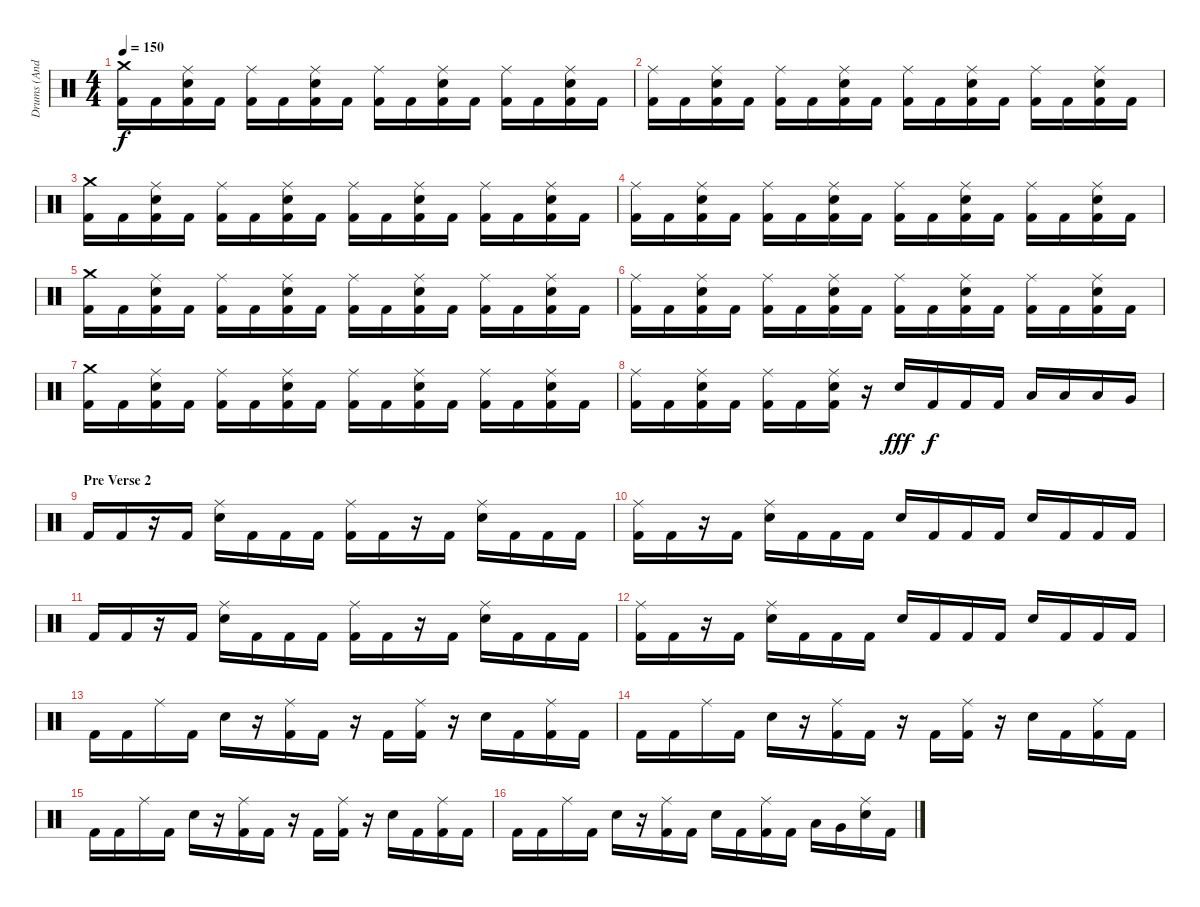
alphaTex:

\track ("Drums (Andy C)" "Drums (And") {instrument percussion}
\staff {score}
\articulation defaults
\ts (4 4)
\tempo 150
\clef neutral
\ks c
("Crash medium (hit)" "Kick (hit) 2").16{dy f} "Kick (hit) 2".16 ("Ride (middle)" "Kick (hit) 2" "Electric Snare (hit)").16 "Kick (hit) 2".16 ("Ride (middle)" "Kick (hit) 2").16 "Kick (hit) 2".16 ("Ride (middle)" "Kick (hit) 2" "Electric Snare (hit)").16 "Kick (hit) 2".16 ("Ride (middle)" "Kick (hit) 2").16 "Kick (hit) 2".16 ("Ride (middle)" "Kick (hit) 2" "Electric Snare (hit)").16 "Kick (hit) 2".16 ("Ride (middle)" "Kick (hit) 2").16 "Kick (hit) 2".16 ("Ride (middle)" "Kick (hit) 2" "Electric Snare (hit)").16 "Kick (hit) 2".16 |
("Ride (middle)" "Kick (hit) 2").16 "Kick (hit) 2".16 ("Ride (middle)" "Kick (hit) 2" "Electric Snare (hit)").16 "Kick (hit) 2".16 ("Ride (middle)" "Kick (hit) 2").16 "Kick (hit) 2".16 ("Ride (middle)" "Kick (hit) 2" "Electric Snare (hit)").16 "Kick (hit) 2".16 ("Ride (middle)" "Kick (hit) 2").16 "Kick (hit) 2".16 ("Ride (middle)" "Kick (hit) 2" "Electric Snare (hit)").16 "Kick (hit) 2".16 ("Ride (middle)" "Kick (hit) 2").16 "Kick (hit) 2".16 ("Ride (middle)" "Kick (hit) 2" "Electric Snare (hit)").16 "Kick (hit) 2".16 |
("Crash medium (hit)" "Kick (hit) 2").16 "Kick (hit) 2".16 ("Ride (middle)" "Kick (hit) 2" "Electric Snare (hit)").16 "Kick (hit) 2".16 ("Ride (middle)" "Kick (hit) 2").16 "Kick (hit) 2".16 ("Ride (middle)" "Kick (hit) 2" "Electric Snare (hit)").16 "Kick (hit) 2".16 ("Ride (middle)" "Kick (hit) 2").16 "Kick (hit) 2".16 ("Ride (middle)" "Kick (hit) 2" "Electric Snare (hit)").16 "Kick (hit) 2".16 ("Ride (middle)" "Kick (hit) 2").16 "Kick (hit) 2".16 ("Ride (middle)" "Kick (hit) 2" "Electric Snare (hit)").16 "Kick (hit) 2".16 |
("Ride (middle)" "Kick (hit) 2").16 "Kick (hit) 2".16 ("Ride (middle)" "Kick (hit) 2" "Electric Snare (hit)").16 "Kick (hit) 2".16 ("Ride (middle)" "Kick (hit) 2").16 "Kick (hit) 2".16 ("Ride (middle)" "Kick (hit) 2" "Electric Snare (hit)").16 "Kick (hit) 2".16 ("Ride (middle)" "Kick (hit) 2").16 "Kick (hit) 2".16 ("Ride (middle)" "Kick (hit) 2" "Electric Snare (hit)").16 "Kick (hit) 2".16 ("Ride (middle)" "Kick (hit) 2").16 "Kick (hit) 2".16 ("Ride (middle)" "Kick (hit) 2" "Electric Snare (hit)").16 "Kick (hit) 2".16 |
("Crash medium (hit)" "Kick (hit) 2").16 "Kick (hit) 2".16 ("Ride (middle)" "Kick (hit) 2" "Electric Snare (hit)").16 "Kick (hit) 2".16 ("Ride (middle)" "Kick (hit) 2").16 "Kick (hit) 2".16 ("Ride (middle)" "Kick (hit) 2" "Electric Snare (hit)").16 "Kick (hit) 2".16 ("Ride (middle)" "Kick (hit) 2").16 "Kick (hit) 2".16 ("Ride (middle)" "Kick (hit) 2" "Electric Snare (hit)").16 "Kick (hit) 2".16 ("Ride (middle)" "Kick (hit) 2").16 "Kick (hit) 2".16 ("Ride (middle)" "Kick (hit) 2" "Electric Snare (hit)").16 "Kick (hit) 2".16 |
("Ride (middle)" "Kick (hit) 2").16 "Kick (hit) 2".16 ("Ride (middle)" "Kick (hit) 2" "Electric Snare (hit)").16 "Kick (hit) 2".16 ("Ride (middle)" "Kick (hit) 2").16 "Kick (hit) 2".16 ("Ride (middle)" "Kick (hit) 2" "Electric Snare (hit)").16 "Kick (hit) 2".16 ("Ride (middle)" "Kick (hit) 2").16 "Kick (hit) 2".16 ("Ride (middle)" "Kick (hit) 2" "Electric Snare (hit)").16 "Kick (hit) 2".16 ("Ride (middle)" "Kick (hit) 2").16 "Kick (hit) 2".16 ("Ride (middle)" "Kick (hit) 2" "Electric Snare (hit)").16 "Kick (hit) 2".16 |
("Crash medium (hit)" "Kick (hit) 2").16 "Kick (hit) 2".16 ("Ride (middle)" "Kick (hit) 2" "Electric Snare (hit)").16 "Kick (hit) 2".16 ("Ride (middle)" "Kick (hit) 2").16 "Kick (hit) 2".16 ("Ride (middle)" "Kick (hit) 2" "Electric Snare (hit)").16 "Kick (hit) 2".16 ("Ride (middle)" "Kick (hit) 2").16 "Kick (hit) 2".16 ("Ride (middle)" "Kick (hit) 2" "Electric Snare (hit)").16 "Kick (hit) 2".16 ("Ride (middle)" "Kick (hit) 2").16 "Kick (hit) 2".16 ("Ride (middle)" "Kick (hit) 2" "Electric Snare (hit)").16 "Kick (hit) 2".16 |
("Ride (middle)" "Kick (hit) 2").16 "Kick (hit) 2".16 ("Ride (middle)" "Kick (hit) 2" "Electric Snare (hit)").16 "Kick (hit) 2".16 ("Ride (middle)" "Kick (hit) 2").16 "Kick (hit) 2".16 ("Ride (middle)" "Kick (hit) 2" "Electric Snare (hit)").16 r.16 "Electric Snare (hit)".16{dy fff} "Kick (hit) 2".16{dy f} "Kick (hit) 2".16 "Kick (hit) 2".16 "Low Tom (hit)".16 "Low Tom (hit)".16 "Low Tom (hit)".16 "Very Low Tom (hit)".16 |
\section ("" "Pre Verse 2")
"Kick (hit) 2".16 "Kick (hit) 2".16 r.16 "Kick (hit) 2".16 ("Ride (middle)" "Electric Snare (hit)").16 "Kick (hit) 2".16 "Kick (hit) 2".16 "Kick (hit) 2".16 ("Ride (middle)" "Kick (hit) 2").16 "Kick (hit) 2".16 r.16 "Kick (hit) 2".16 ("Ride (middle)" "Electric Snare (hit)").16 "Kick (hit) 2".16 "Kick (hit) 2".16 "Kick (hit) 2".16 |
("Ride (middle)" "Kick (hit) 2").16 "Kick (hit) 2".16 r.16 "Kick (hit) 2".16 ("Ride (middle)" "Electric Snare (hit)").16 "Kick (hit) 2".16 "Kick (hit) 2".16 "Kick (hit) 2".16 "Electric Snare (hit)".16 "Kick (hit) 2".16 "Kick (hit) 2".16 "Kick (hit) 2".16 "Electric Snare (hit)".16 "Kick (hit) 2".16 "Kick (hit) 2".16 "Kick (hit) 2".16 |
"Kick (hit) 2".16 "Kick (hit) 2".16 r.16 "Kick (hit) 2".16 ("Ride (middle)" "Electric Snare (hit)").16 "Kick (hit) 2".16 "Kick (hit) 2".16 "Kick (hit) 2".16 ("Ride (middle)" "Kick (hit) 2").16 "Kick (hit) 2".16 r.16 "Kick (hit) 2".16 ("Ride (middle)" "Electric Snare (hit)").16 "Kick (hit) 2".16 "Kick (hit) 2".16 "Kick (hit) 2".16 |
("Ride (middle)" "Kick (hit) 2").16 "Kick (hit) 2".16 r.16 "Kick (hit) 2".16 ("Ride (middle)" "Electric Snare (hit)").16 "Kick (hit) 2".16 "Kick (hit) 2".16 "Kick (hit) 2".16 "Electric Snare (hit)".16 "Kick (hit) 2".16 "Kick (hit) 2".16 "Kick (hit) 2".16 "Electric Snare (hit)".16 "Kick (hit) 2".16 "Kick (hit) 2".16 "Kick (hit) 2".16 |
"Kick (hit) 2".16 "Kick (hit) 2".16 "Ride (middle)".16 "Kick (hit) 2".16 "Electric Snare (hit)".16 r.16 ("Ride (middle)" "Kick (hit) 2").16 "Kick (hit) 2".16 r.16 "Kick (hit) 2".16 ("Ride (middle)" "Kick (hit) 2").16 r.16 "Electric Snare (hit)".16 "Kick (hit) 2".16 ("Ride (middle)" "Kick (hit) 2").16 "Kick (hit) 2".16 |
"Kick (hit) 2".16 "Kick (hit) 2".16 "Ride (middle)".16 "Kick (hit) 2".16 "Electric Snare (hit)".16 r.16 ("Ride (middle)" "Kick (hit) 2").16 "Kick (hit) 2".16 r.16 "Kick (hit) 2".16 ("Ride (middle)" "Kick (hit) 2").16 r.16 "Electric Snare (hit)".16 "Kick (hit) 2".16 ("Ride (middle)" "Kick (hit) 2").16 "Kick (hit) 2".16 |
"Kick (hit) 2".16 "Kick (hit) 2".16 "Ride (middle)".16 "Kick (hit) 2".16 "Electric Snare (hit)".16 r.16 ("Ride (middle)" "Kick (hit) 2").16 "Kick (hit) 2".16 r.16 "Kick (hit) 2".16 ("Ride (middle)" "Kick (hit) 2").16 r.16 "Electric Snare (hit)".16 "Kick (hit) 2".16 ("Ride (middle)" "Kick (hit) 2").16 "Kick (hit) 2".16 |
"Kick (hit) 2".16 "Kick (hit) 2".16 "Ride (middle)".16 "Kick (hit) 2".16 "Electric Snare (hit)".16 r.16 ("Ride (middle)" "Kick (hit) 2").16 "Kick (hit) 2".16 "Electric Snare (hit)".16 "Kick (hit) 2".16 ("Ride (middle)" "Kick (hit) 2").16 "Kick (hit) 2".16 "Low Tom (hit)".16 "Very Low Tom (hit)".16 ("Ride (middle)" "Electric Snare (hit)").16 "Kick (hit) 2".16
